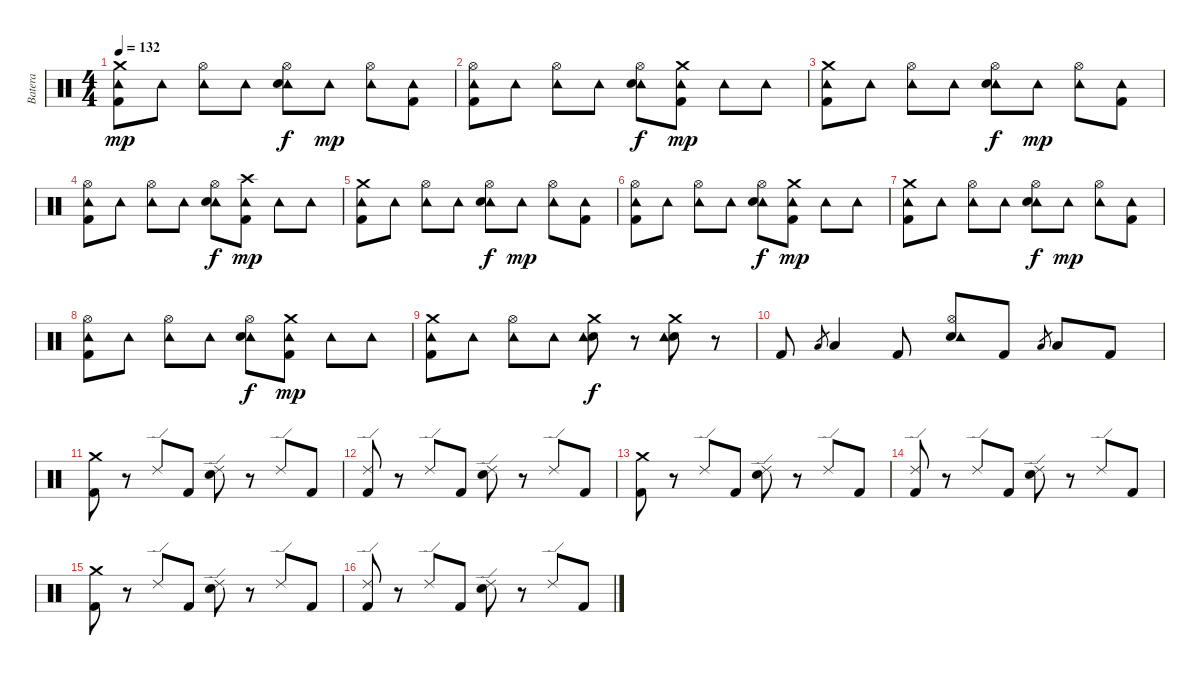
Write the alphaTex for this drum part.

\track ("Batera" "Batera") {instrument percussion}
\staff {score}
\articulation defaults
\ts (4 4)
\tempo 132
\clef neutral
\ks c
("Crash medium (hit)" "Tambourine (hit)" "Kick (hit) 2").8{dy mp} "Tambourine (hit)".8 ("Hi-Hat (open)" "Tambourine (hit)").8 "Tambourine (hit)".8 ("Hi-Hat (open)" "Tambourine (hit)" "Electric Snare (hit)").8{dy f} "Tambourine (hit)".8{dy mp} ("Hi-Hat (open)" "Tambourine (hit)").8 ("Tambourine (hit)" "Kick (hit) 2").8 |
("Hi-Hat (open)" "Tambourine (hit)" "Kick (hit) 2").8 "Tambourine (hit)".8 ("Hi-Hat (open)" "Tambourine (hit)").8 "Tambourine (hit)".8 ("Hi-Hat (open)" "Tambourine (hit)" "Electric Snare (hit)").8{dy f} ("Crash medium (hit)" "Tambourine (hit)" "Kick (hit) 2").8{dy mp} "Tambourine (hit)".8 "Tambourine (hit)".8 |
("Crash medium (hit)" "Tambourine (hit)" "Kick (hit) 2").8 "Tambourine (hit)".8 ("Hi-Hat (open)" "Tambourine (hit)").8 "Tambourine (hit)".8 ("Hi-Hat (open)" "Tambourine (hit)" "Electric Snare (hit)").8{dy f} "Tambourine (hit)".8{dy mp} ("Hi-Hat (open)" "Tambourine (hit)").8 ("Tambourine (hit)" "Kick (hit) 2").8 |
("Hi-Hat (open)" "Tambourine (hit)" "Kick (hit) 2").8 "Tambourine (hit)".8 ("Hi-Hat (open)" "Tambourine (hit)").8 "Tambourine (hit)".8 ("Hi-Hat (open)" "Tambourine (hit)" "Electric Snare (hit)").8{dy f} ("Crash high (hit)" "Tambourine (hit)" "Kick (hit) 2").8{dy mp} "Tambourine (hit)".8 "Tambourine (hit)".8 |
("Crash medium (hit)" "Tambourine (hit)" "Kick (hit) 2").8 "Tambourine (hit)".8 ("Hi-Hat (open)" "Tambourine (hit)").8 "Tambourine (hit)".8 ("Hi-Hat (open)" "Tambourine (hit)" "Electric Snare (hit)").8{dy f} "Tambourine (hit)".8{dy mp} ("Hi-Hat (open)" "Tambourine (hit)").8 ("Tambourine (hit)" "Kick (hit) 2").8 |
("Hi-Hat (open)" "Tambourine (hit)" "Kick (hit) 2").8 "Tambourine (hit)".8 ("Hi-Hat (open)" "Tambourine (hit)").8 "Tambourine (hit)".8 ("Hi-Hat (open)" "Tambourine (hit)" "Electric Snare (hit)").8{dy f} ("Crash medium (hit)" "Tambourine (hit)" "Kick (hit) 2").8{dy mp} "Tambourine (hit)".8 "Tambourine (hit)".8 |
("Crash medium (hit)" "Tambourine (hit)" "Kick (hit) 2").8 "Tambourine (hit)".8 ("Hi-Hat (open)" "Tambourine (hit)").8 "Tambourine (hit)".8 ("Hi-Hat (open)" "Tambourine (hit)" "Electric Snare (hit)").8{dy f} "Tambourine (hit)".8{dy mp} ("Hi-Hat (open)" "Tambourine (hit)").8 ("Tambourine (hit)" "Kick (hit) 2").8 |
("Hi-Hat (open)" "Tambourine (hit)" "Kick (hit) 2").8 "Tambourine (hit)".8 ("Hi-Hat (open)" "Tambourine (hit)").8 "Tambourine (hit)".8 ("Hi-Hat (open)" "Tambourine (hit)" "Electric Snare (hit)").8{dy f} ("Crash medium (hit)" "Tambourine (hit)" "Kick (hit) 2").8{dy mp} "Tambourine (hit)".8 "Tambourine (hit)".8 |
("Crash medium (hit)" "Tambourine (hit)" "Kick (hit) 2").8 "Tambourine (hit)".8 ("Hi-Hat (open)" "Tambourine (hit)").8 "Tambourine (hit)".8 ("Crash medium (hit)" "Electric Snare (hit)" "Tambourine (hit)").8{dy f} r.8 ("Crash medium (hit)" "Electric Snare (hit)" "Tambourine (hit)").8 r.8 |
"Kick (hit) 2".8 "Low Tom (hit)".8{gr} "Low Tom (hit)".4 "Kick (hit) 2".8 ("Hi-Hat (open)" "Electric Snare (hit)" "Tambourine (hit)").8 "Kick (hit) 2".8 "Low Tom (hit)".8{gr} "Low Tom (hit)".8 "Kick (hit) 2".8 |
("Crash medium (hit)" "Kick (hit) 2").8 r.8 "Ride (edge) 2".8 "Kick (hit) 2".8 ("Ride (edge) 2" "Electric Snare (hit)").8 r.8 "Ride (edge) 2".8 "Kick (hit) 2".8 |
("Ride (edge) 2" "Kick (hit) 2").8 r.8 "Ride (edge) 2".8 "Kick (hit) 2".8 ("Ride (edge) 2" "Electric Snare (hit)").8 r.8 "Ride (edge) 2".8 "Kick (hit) 2".8 |
("Crash medium (hit)" "Kick (hit) 2").8 r.8 "Ride (edge) 2".8 "Kick (hit) 2".8 ("Ride (edge) 2" "Electric Snare (hit)").8 r.8 "Ride (edge) 2".8 "Kick (hit) 2".8 |
("Ride (edge) 2" "Kick (hit) 2").8 r.8 "Ride (edge) 2".8 "Kick (hit) 2".8 ("Ride (edge) 2" "Electric Snare (hit)").8 r.8 "Ride (edge) 2".8 "Kick (hit) 2".8 |
("Crash medium (hit)" "Kick (hit) 2").8 r.8 "Ride (edge) 2".8 "Kick (hit) 2".8 ("Ride (edge) 2" "Electric Snare (hit)").8 r.8 "Ride (edge) 2".8 "Kick (hit) 2".8 |
("Ride (edge) 2" "Kick (hit) 2").8 r.8 "Ride (edge) 2".8 "Kick (hit) 2".8 ("Ride (edge) 2" "Electric Snare (hit)").8 r.8 "Ride (edge) 2".8 "Kick (hit) 2".8
